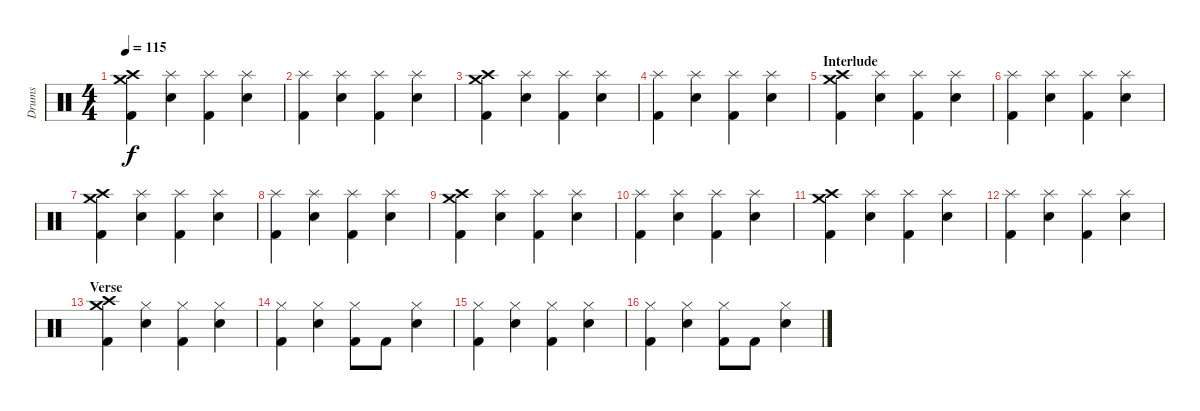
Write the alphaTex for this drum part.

\track ("Drums" "Drums") {instrument percussion}
\staff {score}
\articulation defaults
\ts (4 4)
\tempo 115
\clef neutral
\ks c
("Crash high (hit)" "Crash medium (hit)" "Kick (hit) 2").4{dy f} ("Splash (hit)" "Snare (hit) 2").4 ("Splash (hit)" "Kick (hit) 2").4 ("Splash (hit)" "Snare (hit) 2").4 |
("Splash (hit)" "Kick (hit) 2").4 ("Splash (hit)" "Snare (hit) 2").4 ("Splash (hit)" "Kick (hit) 2").4 ("Splash (hit)" "Snare (hit) 2").4 |
("Crash high (hit)" "Crash medium (hit)" "Kick (hit) 2").4 ("Splash (hit)" "Snare (hit) 2").4 ("Splash (hit)" "Kick (hit) 2").4 ("Splash (hit)" "Snare (hit) 2").4 |
("Splash (hit)" "Kick (hit) 2").4 ("Splash (hit)" "Snare (hit) 2").4 ("Splash (hit)" "Kick (hit) 2").4 ("Splash (hit)" "Snare (hit) 2").4 |
\section ("" "Interlude")
("Crash high (hit)" "Crash medium (hit)" "Kick (hit) 2").4 ("Splash (hit)" "Snare (hit) 2").4 ("Splash (hit)" "Kick (hit) 2").4 ("Splash (hit)" "Snare (hit) 2").4 |
("Splash (hit)" "Kick (hit) 2").4 ("Splash (hit)" "Snare (hit) 2").4 ("Splash (hit)" "Kick (hit) 2").4 ("Splash (hit)" "Snare (hit) 2").4 |
("Crash high (hit)" "Crash medium (hit)" "Kick (hit) 2").4 ("Splash (hit)" "Snare (hit) 2").4 ("Splash (hit)" "Kick (hit) 2").4 ("Splash (hit)" "Snare (hit) 2").4 |
("Splash (hit)" "Kick (hit) 2").4 ("Splash (hit)" "Snare (hit) 2").4 ("Splash (hit)" "Kick (hit) 2").4 ("Splash (hit)" "Snare (hit) 2").4 |
("Crash high (hit)" "Crash medium (hit)" "Kick (hit) 2").4 ("Splash (hit)" "Snare (hit) 2").4 ("Splash (hit)" "Kick (hit) 2").4 ("Splash (hit)" "Snare (hit) 2").4 |
("Splash (hit)" "Kick (hit) 2").4 ("Splash (hit)" "Snare (hit) 2").4 ("Splash (hit)" "Kick (hit) 2").4 ("Splash (hit)" "Snare (hit) 2").4 |
("Crash high (hit)" "Crash medium (hit)" "Kick (hit) 2").4 ("Splash (hit)" "Snare (hit) 2").4 ("Splash (hit)" "Kick (hit) 2").4 ("Splash (hit)" "Snare (hit) 2").4 |
("Splash (hit)" "Kick (hit) 2").4 ("Splash (hit)" "Snare (hit) 2").4 ("Splash (hit)" "Kick (hit) 2").4 ("Splash (hit)" "Snare (hit) 2").4 |
\section ("" "Verse")
("Crash medium (hit)" "Crash high (hit)" "Kick (hit) 2").4 ("Hi-Hat (closed)" "Snare (hit) 2").4 ("Hi-Hat (closed)" "Kick (hit) 2").4 ("Hi-Hat (closed)" "Snare (hit) 2").4 |
("Hi-Hat (closed)" "Kick (hit) 2").4 ("Hi-Hat (closed)" "Snare (hit) 2").4 ("Hi-Hat (closed)" "Kick (hit) 2").8 "Kick (hit) 2".8 ("Hi-Hat (closed)" "Snare (hit) 2").4 |
("Hi-Hat (closed)" "Kick (hit) 2").4 ("Hi-Hat (closed)" "Snare (hit) 2").4 ("Hi-Hat (closed)" "Kick (hit) 2").4 ("Hi-Hat (closed)" "Snare (hit) 2").4 |
("Hi-Hat (closed)" "Kick (hit) 2").4 ("Hi-Hat (closed)" "Snare (hit) 2").4 ("Hi-Hat (closed)" "Kick (hit) 2").8 "Kick (hit) 2".8 ("Hi-Hat (closed)" "Snare (hit) 2").4
